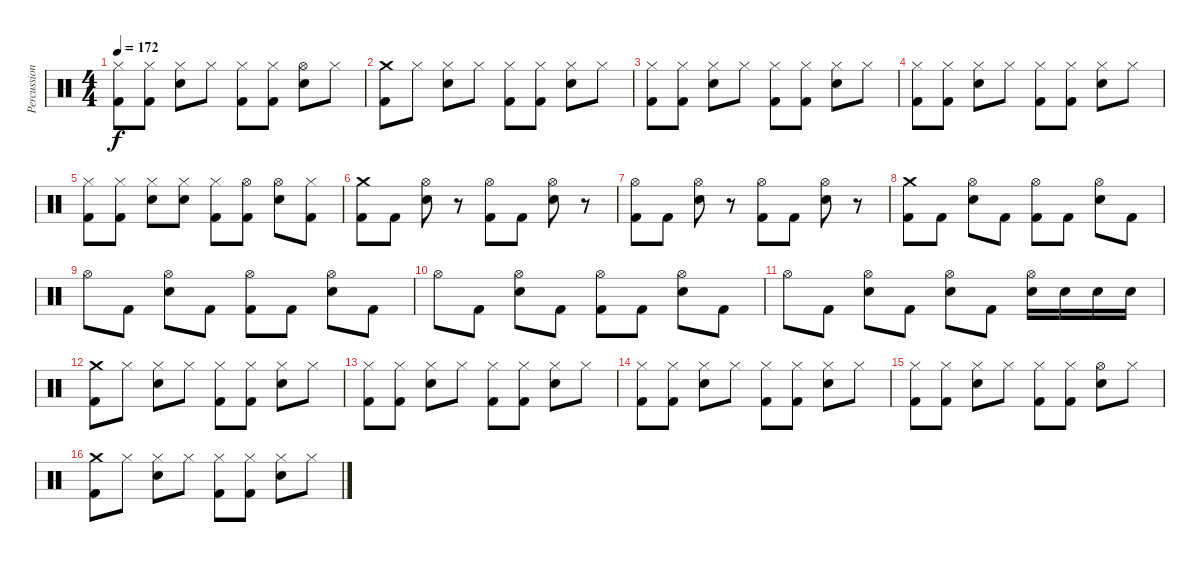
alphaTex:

\track ("Percussions" "Percussion") {instrument percussion}
\staff {score}
\articulation defaults
\ts (4 4)
\tempo 172
\clef neutral
\ks c
("Hi-Hat (closed)" "Kick (hit) 2").8{dy f} ("Hi-Hat (closed)" "Kick (hit) 2").8 ("Hi-Hat (closed)" "Electric Snare (hit)").8 "Hi-Hat (closed)".8 ("Hi-Hat (closed)" "Kick (hit) 2").8 ("Hi-Hat (closed)" "Kick (hit) 2").8 ("Hi-Hat (open)" "Electric Snare (hit)").8 "Hi-Hat (closed)".8 |
("Crash medium (hit)" "Kick (hit) 2").8 "Hi-Hat (closed)".8 ("Hi-Hat (closed)" "Electric Snare (hit)").8 "Hi-Hat (closed)".8 ("Hi-Hat (closed)" "Kick (hit) 2").8 ("Hi-Hat (closed)" "Kick (hit) 2").8 ("Hi-Hat (closed)" "Electric Snare (hit)").8 "Hi-Hat (closed)".8 |
("Hi-Hat (closed)" "Kick (hit) 2").8 ("Hi-Hat (closed)" "Kick (hit) 2").8 ("Hi-Hat (closed)" "Electric Snare (hit)").8 "Hi-Hat (closed)".8 ("Hi-Hat (closed)" "Kick (hit) 2").8 ("Hi-Hat (closed)" "Kick (hit) 2").8 ("Hi-Hat (closed)" "Electric Snare (hit)").8 "Hi-Hat (closed)".8 |
("Hi-Hat (closed)" "Kick (hit) 2").8 ("Hi-Hat (closed)" "Kick (hit) 2").8 ("Hi-Hat (closed)" "Electric Snare (hit)").8 "Hi-Hat (closed)".8 ("Hi-Hat (closed)" "Kick (hit) 2").8 ("Hi-Hat (closed)" "Kick (hit) 2").8 ("Hi-Hat (closed)" "Electric Snare (hit)").8 "Hi-Hat (closed)".8 |
("Hi-Hat (closed)" "Kick (hit) 2").8 ("Hi-Hat (closed)" "Kick (hit) 2").8 ("Hi-Hat (closed)" "Electric Snare (hit)").8 ("Hi-Hat (closed)" "Electric Snare (hit)").8 ("Hi-Hat (closed)" "Kick (hit) 2").8 ("Hi-Hat (open)" "Kick (hit) 2").8 ("Hi-Hat (open)" "Electric Snare (hit)").8 ("Hi-Hat (closed)" "Kick (hit) 2").8 |
("Kick (hit) 2" "Crash medium (hit)").8 "Kick (hit) 2".8 ("Hi-Hat (open)" "Electric Snare (hit)").8 r.8 ("Hi-Hat (open)" "Kick (hit) 2").8 "Kick (hit) 2".8 ("Hi-Hat (open)" "Electric Snare (hit)").8 r.8 |
("Kick (hit) 2" "Hi-Hat (open)").8 "Kick (hit) 2".8 ("Hi-Hat (open)" "Electric Snare (hit)").8 r.8 ("Hi-Hat (open)" "Kick (hit) 2").8 "Kick (hit) 2".8 ("Hi-Hat (open)" "Electric Snare (hit)").8 r.8 |
("Crash medium (hit)" "Kick (hit) 2").8 "Kick (hit) 2".8 ("Hi-Hat (open)" "Electric Snare (hit)").8 "Kick (hit) 2".8 ("Hi-Hat (open)" "Kick (hit) 2").8 "Kick (hit) 2".8 ("Hi-Hat (open)" "Electric Snare (hit)").8 "Kick (hit) 2".8 |
"Hi-Hat (open)".8 "Kick (hit) 2".8 ("Hi-Hat (open)" "Electric Snare (hit)").8 "Kick (hit) 2".8 ("Hi-Hat (open)" "Kick (hit) 2").8 "Kick (hit) 2".8 ("Hi-Hat (open)" "Electric Snare (hit)").8 "Kick (hit) 2".8 |
"Hi-Hat (open)".8 "Kick (hit) 2".8 ("Hi-Hat (open)" "Electric Snare (hit)").8 "Kick (hit) 2".8 ("Hi-Hat (open)" "Kick (hit) 2").8 "Kick (hit) 2".8 ("Hi-Hat (open)" "Electric Snare (hit)").8 "Kick (hit) 2".8 |
"Hi-Hat (open)".8 "Kick (hit) 2".8 ("Hi-Hat (open)" "Electric Snare (hit)").8 "Kick (hit) 2".8 ("Hi-Hat (open)" "Electric Snare (hit)").8 "Kick (hit) 2".8 ("Hi-Hat (open)" "Electric Snare (hit)").16 "Electric Snare (hit)".16 "Electric Snare (hit)".16 "Electric Snare (hit)".16 |
("Crash medium (hit)" "Kick (hit) 2").8 "Hi-Hat (closed)".8 ("Hi-Hat (closed)" "Electric Snare (hit)").8 "Hi-Hat (closed)".8 ("Hi-Hat (closed)" "Kick (hit) 2").8 ("Hi-Hat (closed)" "Kick (hit) 2").8 ("Hi-Hat (closed)" "Electric Snare (hit)").8 "Hi-Hat (closed)".8 |
("Hi-Hat (closed)" "Kick (hit) 2").8 ("Hi-Hat (closed)" "Kick (hit) 2").8 ("Hi-Hat (closed)" "Electric Snare (hit)").8 "Hi-Hat (closed)".8 ("Hi-Hat (closed)" "Kick (hit) 2").8 ("Hi-Hat (closed)" "Kick (hit) 2").8 ("Hi-Hat (closed)" "Electric Snare (hit)").8 "Hi-Hat (closed)".8 |
("Hi-Hat (closed)" "Kick (hit) 2").8 ("Hi-Hat (closed)" "Kick (hit) 2").8 ("Hi-Hat (closed)" "Electric Snare (hit)").8 "Hi-Hat (closed)".8 ("Hi-Hat (closed)" "Kick (hit) 2").8 ("Hi-Hat (closed)" "Kick (hit) 2").8 ("Hi-Hat (closed)" "Electric Snare (hit)").8 "Hi-Hat (closed)".8 |
("Hi-Hat (closed)" "Kick (hit) 2").8 ("Hi-Hat (closed)" "Kick (hit) 2").8 ("Hi-Hat (closed)" "Electric Snare (hit)").8 "Hi-Hat (closed)".8 ("Hi-Hat (closed)" "Kick (hit) 2").8 ("Hi-Hat (closed)" "Kick (hit) 2").8 ("Hi-Hat (open)" "Electric Snare (hit)").8 "Hi-Hat (closed)".8 |
("Crash medium (hit)" "Kick (hit) 2").8 "Hi-Hat (closed)".8 ("Hi-Hat (closed)" "Electric Snare (hit)").8 "Hi-Hat (closed)".8 ("Hi-Hat (closed)" "Kick (hit) 2").8 ("Hi-Hat (closed)" "Kick (hit) 2").8 ("Hi-Hat (closed)" "Electric Snare (hit)").8 "Hi-Hat (closed)".8
